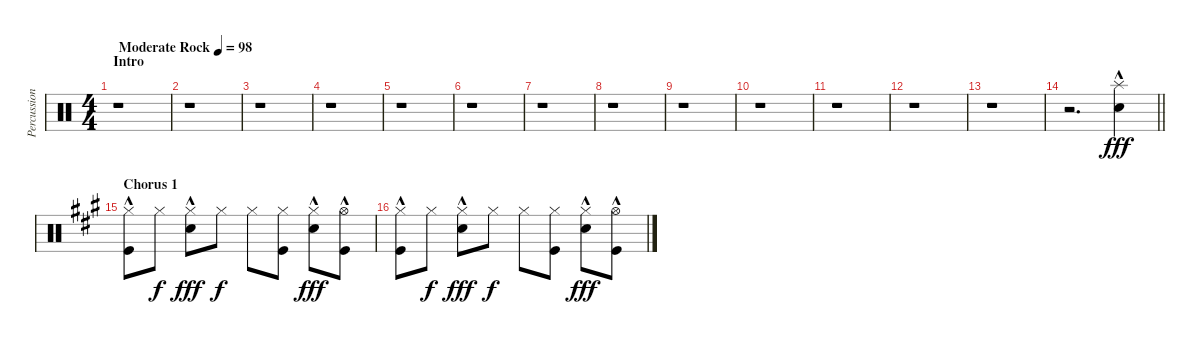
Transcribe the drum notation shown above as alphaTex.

\track ("Percussion -- Joey Kramer" "Percussion") {instrument percussion}
\staff {score}
\articulation defaults
\ts (4 4)
\section ("" "Intro")
\tempo (98 "Moderate Rock")
\clef neutral
\ks c
r.1{dy fff} |
r.1 |
r.1 |
r.1 |
r.1 |
r.1 |
r.1 |
r.1 |
r.1 |
r.1 |
r.1 |
r.1 |
r.1 |
\barLineRight lightlight
r.2{d} ("Splash (hit)"{hac} "Snare (hit) 2"{hac}).4 |
\section ("" "Chorus 1")
\ks a
("Hi-Hat (closed)" "Kick (hit)"{hac}).8 "Hi-Hat (closed)".8{dy f} ("Hi-Hat (closed)" "Snare (hit) 2"{hac}).8{dy fff} "Hi-Hat (closed)".8{dy f} "Hi-Hat (closed)".8 ("Hi-Hat (closed)" "Kick (hit)").8 ("Hi-Hat (closed)" "Snare (hit) 2"{hac}).8{dy fff} ("Hi-Hat (open)"{hac} "Kick (hit)"{hac}).8 |
("Hi-Hat (closed)" "Kick (hit)"{hac}).8 "Hi-Hat (closed)".8{dy f} ("Hi-Hat (closed)" "Snare (hit) 2"{hac}).8{dy fff} "Hi-Hat (closed)".8{dy f} "Hi-Hat (closed)".8 ("Hi-Hat (closed)" "Kick (hit)").8 ("Hi-Hat (closed)" "Snare (hit) 2"{hac}).8{dy fff} ("Hi-Hat (open)"{hac} "Kick (hit)"{hac}).8
